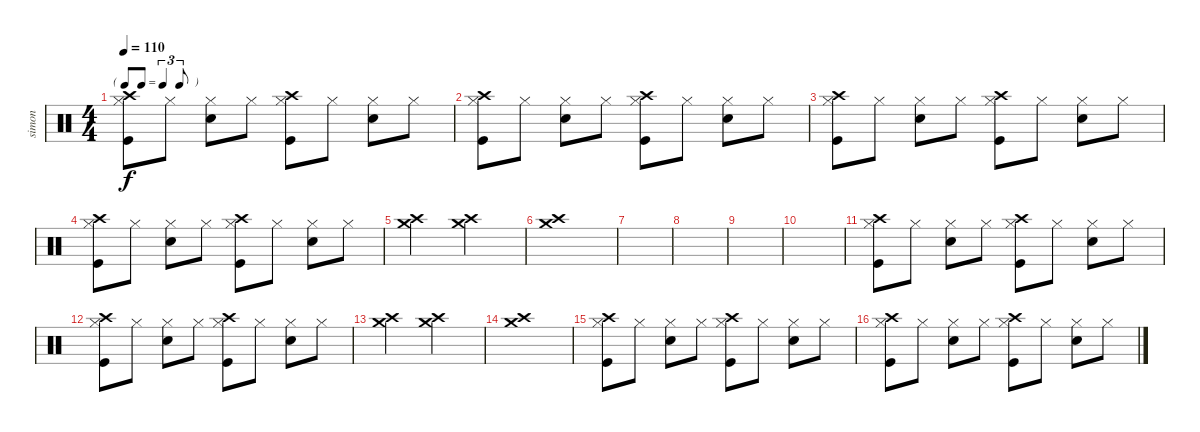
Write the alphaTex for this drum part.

\track ("simon" "simon") {instrument percussion}
\staff {score}
\articulation defaults
\ts (4 4)
\tf triplet8th
\tempo 110
\clef neutral
\ks c
("Hi-Hat (closed)" "Kick (hit)" "Crash high (hit)").8{dy f} "Hi-Hat (closed)".8 ("Hi-Hat (closed)" "Snare (hit) 2").8 "Hi-Hat (closed)".8 ("Hi-Hat (closed)" "Kick (hit)" "Crash high (hit)").8 "Hi-Hat (closed)".8 ("Hi-Hat (closed)" "Snare (hit) 2").8 "Hi-Hat (closed)".8 |
("Hi-Hat (closed)" "Kick (hit)" "Crash high (hit)").8 "Hi-Hat (closed)".8 ("Hi-Hat (closed)" "Snare (hit) 2").8 "Hi-Hat (closed)".8 ("Hi-Hat (closed)" "Kick (hit)" "Crash high (hit)").8 "Hi-Hat (closed)".8 ("Hi-Hat (closed)" "Snare (hit) 2").8 "Hi-Hat (closed)".8 |
("Hi-Hat (closed)" "Kick (hit)" "Crash high (hit)").8 "Hi-Hat (closed)".8 ("Hi-Hat (closed)" "Snare (hit) 2").8 "Hi-Hat (closed)".8 ("Hi-Hat (closed)" "Kick (hit)" "Crash high (hit)").8 "Hi-Hat (closed)".8 ("Hi-Hat (closed)" "Snare (hit) 2").8 "Hi-Hat (closed)".8 |
("Hi-Hat (closed)" "Kick (hit)" "Crash high (hit)").8 "Hi-Hat (closed)".8 ("Hi-Hat (closed)" "Snare (hit) 2").8 "Hi-Hat (closed)".8 ("Hi-Hat (closed)" "Kick (hit)" "Crash high (hit)").8 "Hi-Hat (closed)".8 ("Hi-Hat (closed)" "Snare (hit) 2").8 "Hi-Hat (closed)".8 |
("Crash medium (hit)" "Crash high (hit)").2 ("Crash medium (hit)" "Crash high (hit)").2 |
("Crash high (hit)" "Crash medium (hit)").1 |
|
|
|
|
("Hi-Hat (closed)" "Kick (hit)" "Crash high (hit)").8 "Hi-Hat (closed)".8 ("Hi-Hat (closed)" "Snare (hit) 2").8 "Hi-Hat (closed)".8 ("Hi-Hat (closed)" "Kick (hit)" "Crash high (hit)").8 "Hi-Hat (closed)".8 ("Hi-Hat (closed)" "Snare (hit) 2").8 "Hi-Hat (closed)".8 |
("Hi-Hat (closed)" "Kick (hit)" "Crash high (hit)").8 "Hi-Hat (closed)".8 ("Hi-Hat (closed)" "Snare (hit) 2").8 "Hi-Hat (closed)".8 ("Hi-Hat (closed)" "Kick (hit)" "Crash high (hit)").8 "Hi-Hat (closed)".8 ("Hi-Hat (closed)" "Snare (hit) 2").8 "Hi-Hat (closed)".8 |
("Crash medium (hit)" "Crash high (hit)").2 ("Crash medium (hit)" "Crash high (hit)").2 |
("Crash high (hit)" "Crash medium (hit)").1 |
("Hi-Hat (closed)" "Kick (hit)" "Crash high (hit)").8 "Hi-Hat (closed)".8 ("Hi-Hat (closed)" "Snare (hit) 2").8 "Hi-Hat (closed)".8 ("Hi-Hat (closed)" "Kick (hit)" "Crash high (hit)").8 "Hi-Hat (closed)".8 ("Hi-Hat (closed)" "Snare (hit) 2").8 "Hi-Hat (closed)".8 |
("Hi-Hat (closed)" "Kick (hit)" "Crash high (hit)").8 "Hi-Hat (closed)".8 ("Hi-Hat (closed)" "Snare (hit) 2").8 "Hi-Hat (closed)".8 ("Hi-Hat (closed)" "Kick (hit)" "Crash high (hit)").8 "Hi-Hat (closed)".8 ("Hi-Hat (closed)" "Snare (hit) 2").8 "Hi-Hat (closed)".8
